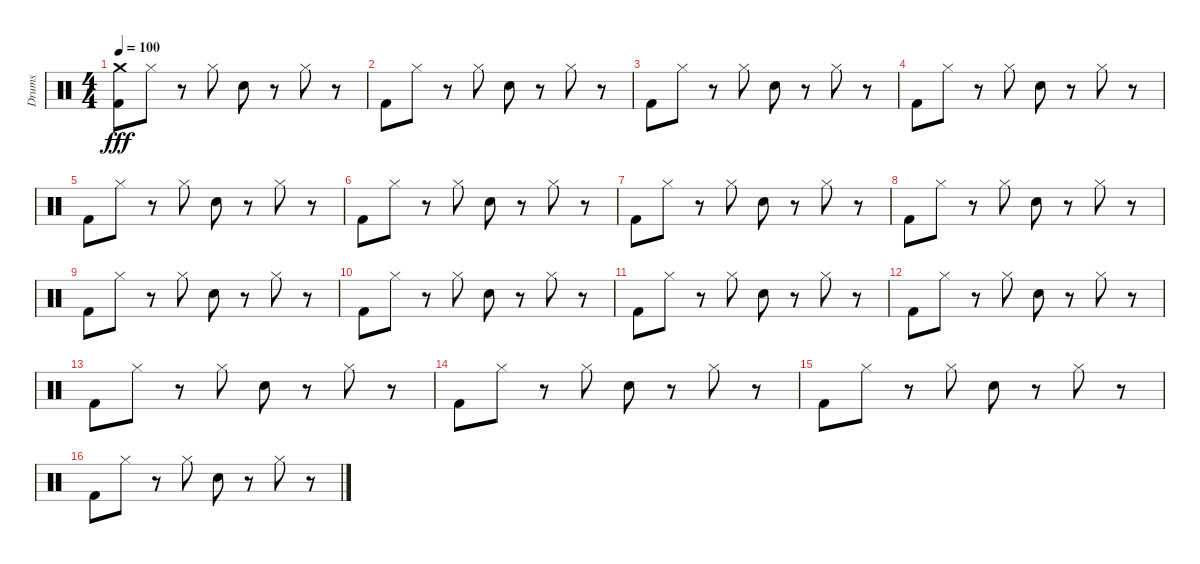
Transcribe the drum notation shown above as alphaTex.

\track ("Drums" "Drums") {instrument percussion}
\staff {score}
\articulation defaults
\ts (4 4)
\section ("" "")
\tempo 100
\clef neutral
\ks c
("Crash medium (hit)" "Kick (hit) 2").8{dy fff} "Hi-Hat (closed)".8 r.8 "Hi-Hat (closed)".8 "Electric Snare (hit)".8 r.8 "Hi-Hat (closed)".8 r.8 |
"Kick (hit) 2".8 "Hi-Hat (closed)".8 r.8 "Hi-Hat (closed)".8 "Electric Snare (hit)".8 r.8 "Hi-Hat (closed)".8 r.8 |
"Kick (hit) 2".8 "Hi-Hat (closed)".8 r.8 "Hi-Hat (closed)".8 "Electric Snare (hit)".8 r.8 "Hi-Hat (closed)".8 r.8 |
"Kick (hit) 2".8 "Hi-Hat (closed)".8 r.8 "Hi-Hat (closed)".8 "Electric Snare (hit)".8 r.8 "Hi-Hat (closed)".8 r.8 |
"Kick (hit) 2".8 "Hi-Hat (closed)".8 r.8 "Hi-Hat (closed)".8 "Electric Snare (hit)".8 r.8 "Hi-Hat (closed)".8 r.8 |
"Kick (hit) 2".8 "Hi-Hat (closed)".8 r.8 "Hi-Hat (closed)".8 "Electric Snare (hit)".8 r.8 "Hi-Hat (closed)".8 r.8 |
"Kick (hit) 2".8 "Hi-Hat (closed)".8 r.8 "Hi-Hat (closed)".8 "Electric Snare (hit)".8 r.8 "Hi-Hat (closed)".8 r.8 |
"Kick (hit) 2".8 "Hi-Hat (closed)".8 r.8 "Hi-Hat (closed)".8 "Electric Snare (hit)".8 r.8 "Hi-Hat (closed)".8 r.8 |
"Kick (hit) 2".8 "Hi-Hat (closed)".8 r.8 "Hi-Hat (closed)".8 "Electric Snare (hit)".8 r.8 "Hi-Hat (closed)".8 r.8 |
"Kick (hit) 2".8 "Hi-Hat (closed)".8 r.8 "Hi-Hat (closed)".8 "Electric Snare (hit)".8 r.8 "Hi-Hat (closed)".8 r.8 |
"Kick (hit) 2".8 "Hi-Hat (closed)".8 r.8 "Hi-Hat (closed)".8 "Electric Snare (hit)".8 r.8 "Hi-Hat (closed)".8 r.8 |
"Kick (hit) 2".8 "Hi-Hat (closed)".8 r.8 "Hi-Hat (closed)".8 "Electric Snare (hit)".8 r.8 "Hi-Hat (closed)".8 r.8 |
"Kick (hit) 2".8 "Hi-Hat (closed)".8 r.8 "Hi-Hat (closed)".8 "Electric Snare (hit)".8 r.8 "Hi-Hat (closed)".8 r.8 |
"Kick (hit) 2".8 "Hi-Hat (closed)".8 r.8 "Hi-Hat (closed)".8 "Electric Snare (hit)".8 r.8 "Hi-Hat (closed)".8 r.8 |
"Kick (hit) 2".8 "Hi-Hat (closed)".8 r.8 "Hi-Hat (closed)".8 "Electric Snare (hit)".8 r.8 "Hi-Hat (closed)".8 r.8 |
"Kick (hit) 2".8 "Hi-Hat (closed)".8 r.8 "Hi-Hat (closed)".8 "Electric Snare (hit)".8 r.8 "Hi-Hat (closed)".8 r.8
